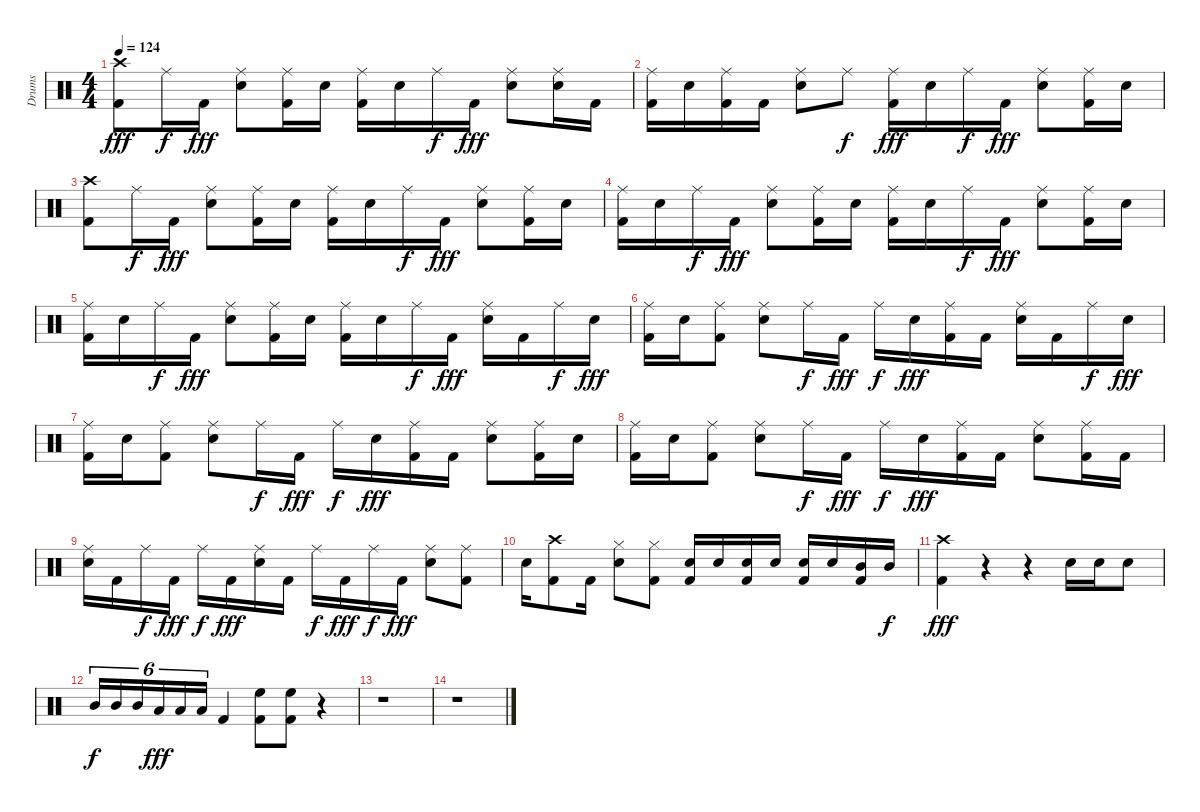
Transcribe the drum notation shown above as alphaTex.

\track ("Drums" "Drums") {instrument percussion}
\staff {score}
\articulation defaults
\ts (4 4)
\tempo 124
\clef neutral
\ks c
("Crash high (hit)" "Kick (hit) 2").8{dy fff} "Ride (middle)".16{dy f} "Kick (hit) 2".16{dy fff} ("Ride (middle)" "Electric Snare (hit)").8 ("Ride (middle)" "Kick (hit) 2").16 "Electric Snare (hit)".16 ("Ride (middle)" "Kick (hit) 2").16 "Electric Snare (hit)".16 "Ride (middle)".16{dy f} "Kick (hit) 2".16{dy fff} ("Ride (middle)" "Electric Snare (hit)").8 ("Ride (middle)" "Electric Snare (hit)").16 "Kick (hit) 2".16 |
("Ride (middle)" "Kick (hit) 2").16 "Electric Snare (hit)".16 ("Ride (middle)" "Kick (hit) 2").16 "Kick (hit) 2".16 ("Ride (middle)" "Electric Snare (hit)").8 "Ride (middle)".8{dy f} ("Ride (middle)" "Kick (hit) 2").16{dy fff} "Electric Snare (hit)".16 "Ride (middle)".16{dy f} "Kick (hit) 2".16{dy fff} ("Ride (middle)" "Electric Snare (hit)").8 ("Ride (middle)" "Kick (hit) 2").16 "Electric Snare (hit)".16 |
("Crash high (hit)" "Kick (hit) 2").8 "Ride (middle)".16{dy f} "Kick (hit) 2".16{dy fff} ("Ride (middle)" "Electric Snare (hit)").8 ("Ride (middle)" "Kick (hit) 2").16 "Electric Snare (hit)".16 ("Ride (middle)" "Kick (hit) 2").16 "Electric Snare (hit)".16 "Ride (middle)".16{dy f} "Kick (hit) 2".16{dy fff} ("Ride (middle)" "Electric Snare (hit)").8 ("Ride (middle)" "Kick (hit) 2").16 "Electric Snare (hit)".16 |
("Ride (middle)" "Kick (hit) 2").16 "Electric Snare (hit)".16 "Ride (middle)".16{dy f} "Kick (hit) 2".16{dy fff} ("Ride (middle)" "Electric Snare (hit)").8 ("Ride (middle)" "Kick (hit) 2").16 "Electric Snare (hit)".16 ("Ride (middle)" "Kick (hit) 2").16 "Electric Snare (hit)".16 "Ride (middle)".16{dy f} "Kick (hit) 2".16{dy fff} ("Ride (middle)" "Electric Snare (hit)").8 ("Ride (middle)" "Kick (hit) 2").16 "Electric Snare (hit)".16 |
("Ride (middle)" "Kick (hit) 2").16 "Electric Snare (hit)".16 "Ride (middle)".16{dy f} "Kick (hit) 2".16{dy fff} ("Ride (middle)" "Electric Snare (hit)").8 ("Ride (middle)" "Kick (hit) 2").16 "Electric Snare (hit)".16 ("Ride (middle)" "Kick (hit) 2").16 "Electric Snare (hit)".16 "Ride (middle)".16{dy f} "Kick (hit) 2".16{dy fff} ("Ride (middle)" "Electric Snare (hit)").16 "Kick (hit) 2".16 "Ride (middle)".16{dy f} "Electric Snare (hit)".16{dy fff} |
("Ride (middle)" "Kick (hit) 2").16 "Electric Snare (hit)".16 ("Ride (middle)" "Kick (hit) 2").8 ("Ride (middle)" "Electric Snare (hit)").8 "Ride (middle)".16{dy f} "Kick (hit) 2".16{dy fff} "Ride (middle)".16{dy f} "Electric Snare (hit)".16{dy fff} ("Ride (middle)" "Kick (hit) 2").16 "Kick (hit) 2".16 ("Ride (middle)" "Electric Snare (hit)").16 "Kick (hit) 2".16 "Ride (middle)".16{dy f} "Electric Snare (hit)".16{dy fff} |
("Ride (middle)" "Kick (hit) 2").16 "Electric Snare (hit)".16 ("Ride (middle)" "Kick (hit) 2").8 ("Ride (middle)" "Electric Snare (hit)").8 "Ride (middle)".16{dy f} "Kick (hit) 2".16{dy fff} "Ride (middle)".16{dy f} "Electric Snare (hit)".16{dy fff} ("Ride (middle)" "Kick (hit) 2").16 "Kick (hit) 2".16 ("Ride (middle)" "Electric Snare (hit)").8 ("Ride (middle)" "Kick (hit) 2").16 "Electric Snare (hit)".16 |
("Ride (middle)" "Kick (hit) 2").16 "Electric Snare (hit)".16 ("Ride (middle)" "Kick (hit) 2").8 ("Ride (middle)" "Electric Snare (hit)").8 "Ride (middle)".16{dy f} "Kick (hit) 2".16{dy fff} "Ride (middle)".16{dy f} "Electric Snare (hit)".16{dy fff} ("Ride (middle)" "Kick (hit) 2").16 "Kick (hit) 2".16 ("Ride (middle)" "Electric Snare (hit)").8 ("Ride (middle)" "Kick (hit) 2").16 "Kick (hit) 2".16 |
("Ride (middle)" "Electric Snare (hit)").16 "Kick (hit) 2".16 "Ride (middle)".16{dy f} "Kick (hit) 2".16{dy fff} "Ride (middle)".16{dy f} "Kick (hit) 2".16{dy fff} ("Ride (middle)" "Electric Snare (hit)").16 "Kick (hit) 2".16 "Ride (middle)".16{dy f} "Kick (hit) 2".16{dy fff} "Ride (middle)".16{dy f} "Kick (hit) 2".16{dy fff} ("Ride (middle)" "Electric Snare (hit)").8 ("Ride (middle)" "Kick (hit) 2").8 |
"Electric Snare (hit)".16 ("Crash high (hit)" "Kick (hit) 2").8 "Kick (hit) 2".16 ("Hi-Hat (closed)" "Electric Snare (hit)").8 ("Hi-Hat (closed)" "Kick (hit) 2").8 ("Electric Snare (hit)" "Kick (hit) 2").16 "Electric Snare (hit)".16 ("Electric Snare (hit)" "Kick (hit) 2").16 "Electric Snare (hit)".16 ("Electric Snare (hit)" "Kick (hit) 2").16 "Electric Snare (hit)".16 ("Mid Tom (hit)" "Kick (hit) 2").16 "Mid Tom (hit)".16{dy f} |
("Crash high (hit)" "Kick (hit) 2").4{dy fff} r.4 r.4 "Electric Snare (hit)".16 "Electric Snare (hit)".16 "Electric Snare (hit)".8 |
"Mid Tom (hit)".16{tu (6 4) dy f} "Mid Tom (hit)".16{tu (6 4)} "Mid Tom (hit)".16{tu (6 4)} "Low Tom (hit)".16{tu (6 4) dy fff} "Low Tom (hit)".16{tu (6 4)} "Low Tom (hit)".16{tu (6 4)} "Kick (hit) 2".4 ("High Floor Tom (hit)" "Kick (hit) 2").8 ("High Floor Tom (hit)" "Kick (hit) 2").8 r.4 |
r.1 |
r.1
